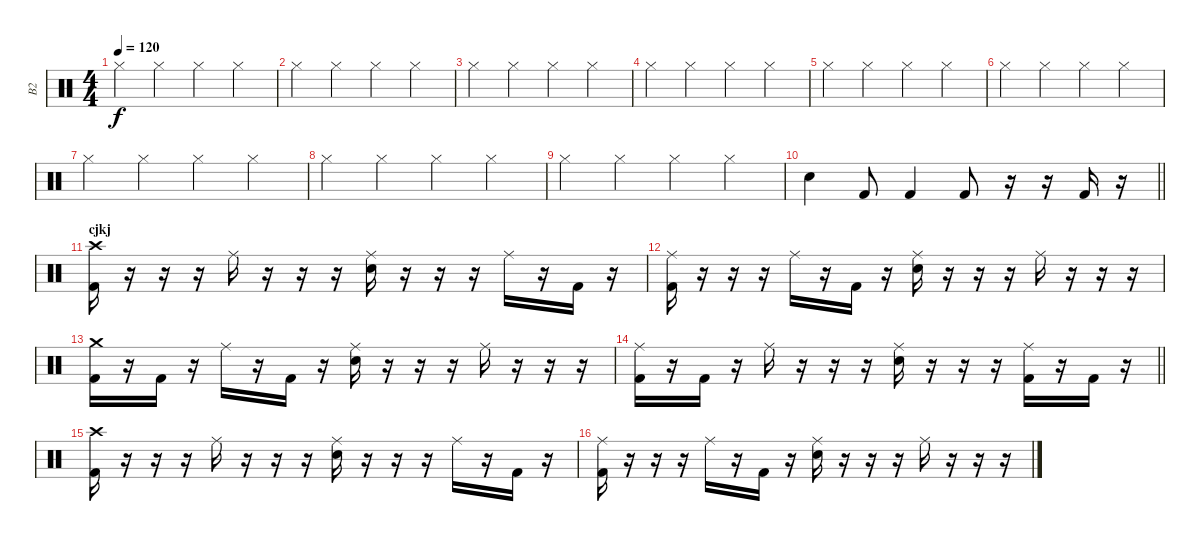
\track ("В2" "В2") {instrument percussion}
\staff {score}
\articulation defaults
\ts (4 4)
\tempo 120
\clef neutral
\ks c "Hi-Hat (closed)".4{dy f} "Hi-Hat (closed)".4 "Hi-Hat (closed)".4 "Hi-Hat (closed)".4
|
"Hi-Hat (closed)".4 "Hi-Hat (closed)".4 "Hi-Hat (closed)".4 "Hi-Hat (closed)".4 |
"Hi-Hat (closed)".4 "Hi-Hat (closed)".4 "Hi-Hat (closed)".4 "Hi-Hat (closed)".4 |
"Hi-Hat (closed)".4 "Hi-Hat (closed)".4 "Hi-Hat (closed)".4 "Hi-Hat (closed)".4 |
"Hi-Hat (closed)".4 "Hi-Hat (closed)".4 "Hi-Hat (closed)".4 "Hi-Hat (closed)".4 |
"Hi-Hat (closed)".4 "Hi-Hat (closed)".4 "Hi-Hat (closed)".4 "Hi-Hat (closed)".4 |
"Hi-Hat (closed)".4 "Hi-Hat (closed)".4 "Hi-Hat (closed)".4 "Hi-Hat (closed)".4 |
"Hi-Hat (closed)".4 "Hi-Hat (closed)".4 "Hi-Hat (closed)".4 "Hi-Hat (closed)".4 |
"Hi-Hat (closed)".4 "Hi-Hat (closed)".4 "Hi-Hat (closed)".4 "Hi-Hat (closed)".4 |
\barLineRight lightlight "Snare (hit) 2".4 "Kick (hit) 2".8 "Kick (hit) 2".4 "Kick (hit) 2".8
r.16 r.16 "Kick (hit) 2".16 r.16 |
\section ("" "cjkj")
("Crash high (hit)" "Kick (hit) 2").16 r.16 r.16 r.16 "Ride (middle)".16 r.16 r.16 r.16 ("Ride (middle)" "Snare (hit) 2").16 r.16 r.16 r.16 "Ride (middle)".16 r.16 "Kick (hit) 2".16 r.16 |
("Ride (middle)" "Kick (hit) 2").16 r.16 r.16 r.16 "Ride (middle)".16 r.16 "Kick (hit) 2".16 r.16 ("Ride (middle)" "Snare (hit) 2").16 r.16 r.16 r.16 "Ride (middle)".16 r.16 r.16 r.16 |
("Crash medium (hit)" "Kick (hit) 2").16 r.16 "Kick (hit) 2".16 r.16 "Ride (middle)".16 r.16 "Kick (hit) 2".16 r.16 ("Ride (middle)" "Snare (hit) 2").16 r.16 r.16 r.16 "Ride (middle)".16 r.16 r.16 r.16 |
\barLineRight lightlight
("Ride (middle)" "Kick (hit) 2").16 r.16 "Kick (hit) 2".16 r.16 "Ride (middle)".16 r.16 r.16 r.16 ("Ride (middle)" "Snare (hit) 2").16 r.16 r.16 r.16 ("Ride (middle)" "Kick (hit) 2").16 r.16 "Kick (hit) 2".16 r.16 |
("Crash high (hit)" "Kick (hit) 2").16 r.16 r.16 r.16 "Ride (middle)".16 r.16 r.16 r.16 ("Ride (middle)" "Snare (hit) 2").16 r.16 r.16 r.16 "Ride (middle)".16 r.16 "Kick (hit) 2".16 r.16 |
("Ride (middle)" "Kick (hit) 2").16 r.16 r.16 r.16 "Ride (middle)".16 r.16 "Kick (hit) 2".16 r.16 ("Ride (middle)" "Snare (hit) 2").16 r.16 r.16 r.16 "Ride (middle)".16 r.16 r.16 r.16
